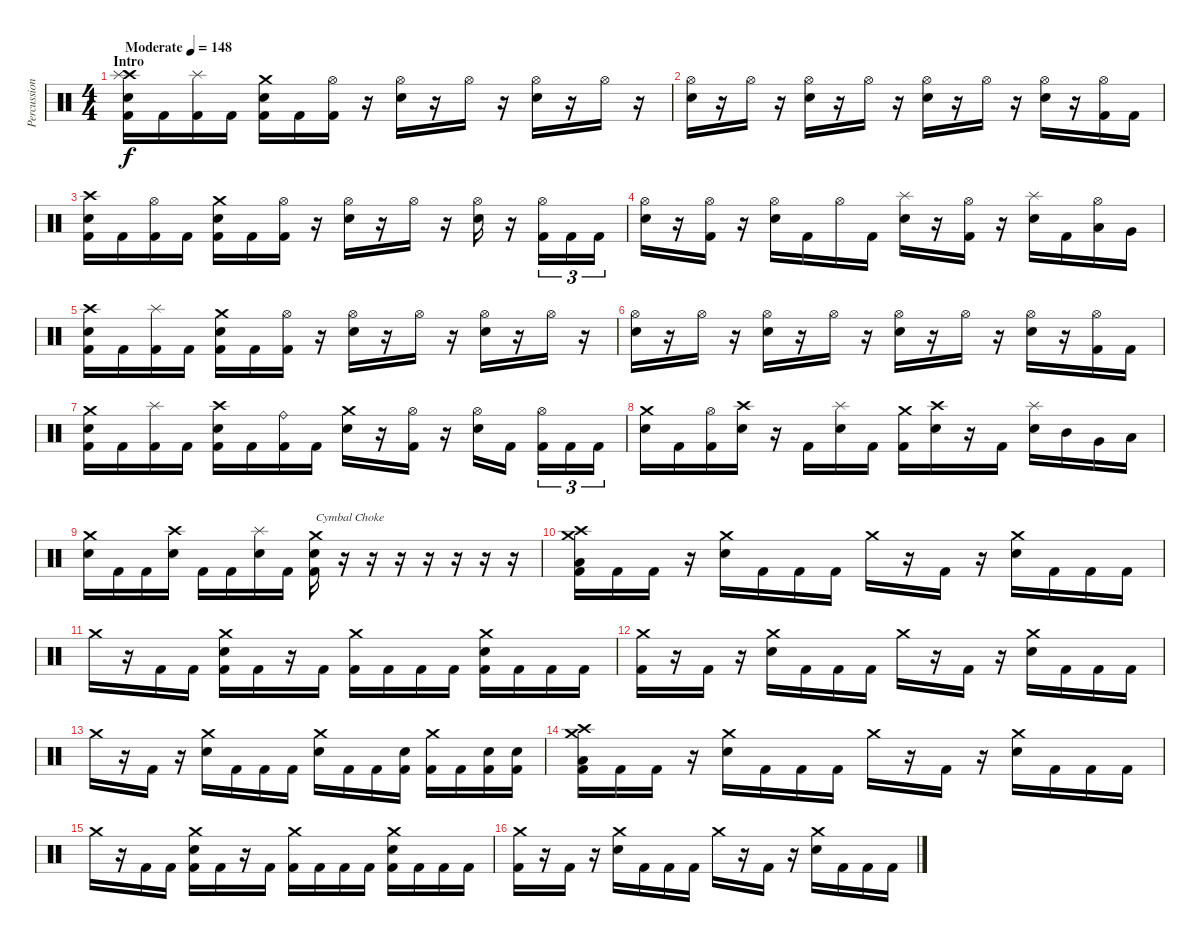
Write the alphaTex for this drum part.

\track ("Percussion" "Percussion") {instrument percussion}
\staff {score}
\articulation defaults
\ts (4 4)
\section ("" "Intro")
\tempo (148 "Moderate")
\clef neutral
\ks c
("Crash high (hit)" "Splash (hit)" "Electric Snare (hit)" "Kick (hit) 2").16{dy f} "Kick (hit) 2".16 ("Splash (hit)" "Kick (hit) 2").16 "Kick (hit) 2".16 ("Crash medium (hit)" "Electric Snare (hit)" "Kick (hit) 2").16 "Kick (hit) 2".16 ("Hi-Hat (open)" "Kick (hit) 2").16 r.16 ("Hi-Hat (open)" "Electric Snare (hit)").16 r.16 "Hi-Hat (open)".16 r.16 ("Hi-Hat (open)" "Electric Snare (hit)").16 r.16 "Hi-Hat (open)".16 r.16 |
("Hi-Hat (open)" "Electric Snare (hit)").16 r.16 "Hi-Hat (open)".16 r.16 ("Hi-Hat (open)" "Electric Snare (hit)").16 r.16 "Hi-Hat (open)".16 r.16 ("Hi-Hat (open)" "Electric Snare (hit)").16 r.16 "Hi-Hat (open)".16 r.16 ("Hi-Hat (open)" "Electric Snare (hit)").16 r.16 ("Hi-Hat (open)" "Kick (hit) 2").16 "Kick (hit) 2".16 |
("Crash high (hit)" "Electric Snare (hit)" "Kick (hit) 2").16 "Kick (hit) 2".16 ("Hi-Hat (open)" "Kick (hit) 2").16 "Kick (hit) 2".16 ("Crash medium (hit)" "Electric Snare (hit)" "Kick (hit) 2").16 "Kick (hit) 2".16 ("Hi-Hat (open)" "Kick (hit) 2").16 r.16 ("Hi-Hat (open)" "Electric Snare (hit)").16 r.16 "Hi-Hat (open)".16 r.16 ("Hi-Hat (open)" "Electric Snare (hit)").16 r.16 ("Hi-Hat (open)" "Kick (hit) 2").16{tu (3 2)} "Kick (hit) 2".16{tu (3 2)} "Kick (hit) 2".16{tu (3 2)} |
("Hi-Hat (open)" "Electric Snare (hit)").16 r.16 ("Hi-Hat (open)" "Kick (hit) 2").16 r.16 ("Hi-Hat (open)" "Electric Snare (hit)").16 "Kick (hit) 2".16 "Hi-Hat (open)".16 "Kick (hit) 2".16 ("Splash (hit)" "Electric Snare (hit)").16 r.16 ("Hi-Hat (open)" "Kick (hit) 2").16 r.16 ("Splash (hit)" "Electric Snare (hit)").16 "Kick (hit) 2".16 ("Hi-Hat (open)" "Low Tom (hit)").16 "Very Low Tom (hit)".16 |
("Crash high (hit)" "Electric Snare (hit)" "Kick (hit) 2").16 "Kick (hit) 2".16 ("Splash (hit)" "Kick (hit) 2").16 "Kick (hit) 2".16 ("Crash medium (hit)" "Electric Snare (hit)" "Kick (hit) 2").16 "Kick (hit) 2".16 ("Hi-Hat (open)" "Kick (hit) 2").16 r.16 ("Hi-Hat (open)" "Electric Snare (hit)").16 r.16 "Hi-Hat (open)".16 r.16 ("Hi-Hat (open)" "Electric Snare (hit)").16 r.16 "Hi-Hat (open)".16 r.16 |
("Hi-Hat (open)" "Electric Snare (hit)").16 r.16 "Hi-Hat (open)".16 r.16 ("Hi-Hat (open)" "Electric Snare (hit)").16 r.16 "Hi-Hat (open)".16 r.16 ("Hi-Hat (open)" "Electric Snare (hit)").16 r.16 "Hi-Hat (open)".16 r.16 ("Hi-Hat (open)" "Electric Snare (hit)").16 r.16 ("Hi-Hat (open)" "Kick (hit) 2").16 "Kick (hit) 2".16 |
("Crash medium (hit)" "Electric Snare (hit)" "Kick (hit) 2").16 "Kick (hit) 2".16 ("Splash (hit)" "Kick (hit) 2").16 "Kick (hit) 2".16 ("Crash high (hit)" "Electric Snare (hit)" "Kick (hit) 2").16 "Kick (hit) 2".16 ("Ride (bell)" "Kick (hit) 2").16 "Kick (hit) 2".16 ("Crash medium (hit)" "Electric Snare (hit)").16 r.16 ("Hi-Hat (open)" "Kick (hit) 2").16 r.16 ("Hi-Hat (open)" "Electric Snare (hit)").16 "Kick (hit) 2".16{beam splitsecondary} ("Hi-Hat (open)" "Kick (hit) 2").16{tu (3 2)} "Kick (hit) 2".16{tu (3 2)} "Kick (hit) 2".16{tu (3 2)} |
("Crash medium (hit)" "Electric Snare (hit)").16 "Kick (hit) 2".16 ("Hi-Hat (open)" "Kick (hit) 2").16 ("Crash high (hit)" "Electric Snare (hit)").16 r.16 "Kick (hit) 2".16 ("Splash (hit)" "Electric Snare (hit)").16 "Kick (hit) 2".16 ("Crash medium (hit)" "Kick (hit) 2").16 ("Crash high (hit)" "Electric Snare (hit)").16 r.16 "Kick (hit) 2".16 ("Splash (hit)" "Electric Snare (hit)").16 "Mid Tom (hit)".16 "Very Low Tom (hit)".16 "Low Floor Tom (hit)".16 |
("Crash medium (hit)" "Electric Snare (hit)").16 "Kick (hit) 2".16 "Kick (hit) 2".16 ("Crash high (hit)" "Electric Snare (hit)").16 "Kick (hit) 2".16 "Kick (hit) 2".16 ("Splash (hit)" "Electric Snare (hit)").16 "Kick (hit) 2".16 ("Crash medium (hit)" "Electric Snare (hit)" "Kick (hit) 2").16{txt "Cymbal Choke"} r.16 r.16{volume 0} r.16 r.16 r.16 r.16 r.16 |
("Crash high (hit)" "Crash medium (hit)" "Low Floor Tom (hit)" "Kick (hit) 2").16{volume 14} "Kick (hit) 2".16 "Kick (hit) 2".16 r.16 ("Crash medium (hit)" "Electric Snare (hit)").16 "Kick (hit) 2".16 "Kick (hit) 2".16 "Kick (hit) 2".16 "Crash medium (hit)".16 r.16 "Kick (hit) 2".16 r.16 ("Crash medium (hit)" "Electric Snare (hit)").16 "Kick (hit) 2".16 "Kick (hit) 2".16 "Kick (hit) 2".16 |
"Crash medium (hit)".16 r.16 "Kick (hit) 2".16 "Kick (hit) 2".16 ("Crash medium (hit)" "Electric Snare (hit)" "Kick (hit) 2").16 "Kick (hit) 2".16 r.16 "Kick (hit) 2".16 ("Crash medium (hit)" "Kick (hit) 2").16 "Kick (hit) 2".16 "Kick (hit) 2".16 "Kick (hit) 2".16 ("Crash medium (hit)" "Electric Snare (hit)" "Kick (hit) 2").16 "Kick (hit) 2".16 "Kick (hit) 2".16 "Kick (hit) 2".16 |
("Crash medium (hit)" "Kick (hit) 2").16 r.16 "Kick (hit) 2".16 r.16 ("Crash medium (hit)" "Electric Snare (hit)").16 "Kick (hit) 2".16 "Kick (hit) 2".16 "Kick (hit) 2".16 "Crash medium (hit)".16 r.16 "Kick (hit) 2".16 r.16 ("Crash medium (hit)" "Electric Snare (hit)").16 "Kick (hit) 2".16 "Kick (hit) 2".16 "Kick (hit) 2".16 |
"Crash medium (hit)".16 r.16 "Kick (hit) 2".16 r.16 ("Crash medium (hit)" "Electric Snare (hit)").16 "Kick (hit) 2".16 "Kick (hit) 2".16 "Kick (hit) 2".16 ("Crash medium (hit)" "Electric Snare (hit)").16 "Kick (hit) 2".16 "Kick (hit) 2".16 ("Electric Snare (hit)" "Kick (hit) 2").16 ("Crash medium (hit)" "Kick (hit) 2").16 "Kick (hit) 2".16 ("Electric Snare (hit)" "Kick (hit) 2").16 ("Electric Snare (hit)" "Kick (hit) 2").16 |
("Crash high (hit)" "Crash medium (hit)" "Low Floor Tom (hit)" "Kick (hit) 2").16 "Kick (hit) 2".16 "Kick (hit) 2".16 r.16 ("Crash medium (hit)" "Electric Snare (hit)").16 "Kick (hit) 2".16 "Kick (hit) 2".16 "Kick (hit) 2".16 "Crash medium (hit)".16 r.16 "Kick (hit) 2".16 r.16 ("Crash medium (hit)" "Electric Snare (hit)").16 "Kick (hit) 2".16 "Kick (hit) 2".16 "Kick (hit) 2".16 |
"Crash medium (hit)".16 r.16 "Kick (hit) 2".16 "Kick (hit) 2".16 ("Crash medium (hit)" "Electric Snare (hit)" "Kick (hit) 2").16 "Kick (hit) 2".16 r.16 "Kick (hit) 2".16 ("Crash medium (hit)" "Kick (hit) 2").16 "Kick (hit) 2".16 "Kick (hit) 2".16 "Kick (hit) 2".16 ("Crash medium (hit)" "Electric Snare (hit)" "Kick (hit) 2").16 "Kick (hit) 2".16 "Kick (hit) 2".16 "Kick (hit) 2".16 |
("Crash medium (hit)" "Kick (hit) 2").16 r.16 "Kick (hit) 2".16 r.16 ("Crash medium (hit)" "Electric Snare (hit)").16 "Kick (hit) 2".16 "Kick (hit) 2".16 "Kick (hit) 2".16 "Crash medium (hit)".16 r.16 "Kick (hit) 2".16 r.16 ("Crash medium (hit)" "Electric Snare (hit)").16 "Kick (hit) 2".16 "Kick (hit) 2".16 "Kick (hit) 2".16
